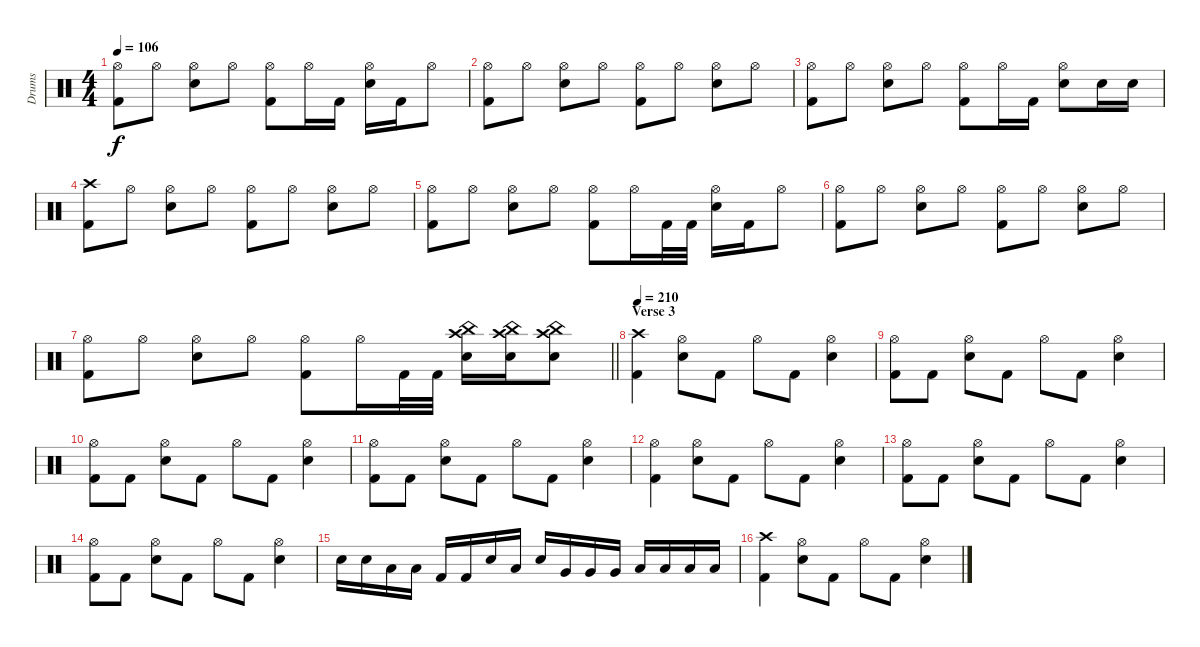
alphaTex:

\track ("Drums" "Drums") {instrument percussion}
\staff {score}
\articulation defaults
\ts (4 4)
\tempo 106
\clef neutral
\ks c
("Hi-Hat (open)" "Kick (hit) 2").8{dy f} "Hi-Hat (open)".8 ("Hi-Hat (open)" "Snare (hit) 2").8 "Hi-Hat (open)".8 ("Hi-Hat (open)" "Kick (hit) 2").8 "Hi-Hat (open)".16 "Kick (hit) 2".16 ("Hi-Hat (open)" "Snare (hit) 2").16 "Kick (hit) 2".16 "Hi-Hat (open)".8 |
("Hi-Hat (open)" "Kick (hit) 2").8 "Hi-Hat (open)".8 ("Hi-Hat (open)" "Snare (hit) 2").8 "Hi-Hat (open)".8 ("Hi-Hat (open)" "Kick (hit) 2").8 "Hi-Hat (open)".8 ("Hi-Hat (open)" "Snare (hit) 2").8 "Hi-Hat (open)".8 |
("Hi-Hat (open)" "Kick (hit) 2").8 "Hi-Hat (open)".8 ("Hi-Hat (open)" "Snare (hit) 2").8 "Hi-Hat (open)".8 ("Hi-Hat (open)" "Kick (hit) 2").8 "Hi-Hat (open)".16 "Kick (hit) 2".16 ("Hi-Hat (open)" "Snare (hit) 2").8 "Snare (hit) 2".16 "Snare (hit) 2".16 |
("Crash high (hit)" "Kick (hit) 2").8 "Hi-Hat (open)".8 ("Hi-Hat (open)" "Snare (hit) 2").8 "Hi-Hat (open)".8 ("Hi-Hat (open)" "Kick (hit) 2").8 "Hi-Hat (open)".8 ("Hi-Hat (open)" "Snare (hit) 2").8 "Hi-Hat (open)".8 |
("Hi-Hat (open)" "Kick (hit) 2").8 "Hi-Hat (open)".8 ("Hi-Hat (open)" "Snare (hit) 2").8 "Hi-Hat (open)".8 ("Hi-Hat (open)" "Kick (hit) 2").8 "Hi-Hat (open)".16 "Kick (hit) 2".32 "Kick (hit) 2".32 ("Hi-Hat (open)" "Snare (hit) 2").16 "Kick (hit) 2".16 "Hi-Hat (open)".8 |
("Hi-Hat (open)" "Kick (hit) 2").8 "Hi-Hat (open)".8 ("Hi-Hat (open)" "Snare (hit) 2").8 "Hi-Hat (open)".8 ("Hi-Hat (open)" "Kick (hit) 2").8 "Hi-Hat (open)".8 ("Hi-Hat (open)" "Snare (hit) 2").8 "Hi-Hat (open)".8 |
\barLineRight lightlight
("Hi-Hat (open)" "Kick (hit) 2").8 "Hi-Hat (open)".8 ("Hi-Hat (open)" "Snare (hit) 2").8 "Hi-Hat (open)".8 ("Hi-Hat (open)" "Kick (hit) 2").8 "Hi-Hat (open)".16 "Kick (hit) 2".32 "Kick (hit) 2".32 ("China (hit)" "Crash high (hit)" "Snare (hit) 2").16 ("China (hit)" "Crash high (hit)" "Snare (hit) 2").16 ("China (hit)" "Crash high (hit)" "Snare (hit) 2").8 |
\section ("" "Verse 3")
\tempo 210
("Crash high (hit)" "Kick (hit) 2").4 ("Hi-Hat (open)" "Snare (hit) 2").8 "Kick (hit) 2".8 "Hi-Hat (open)".8 "Kick (hit) 2".8 ("Hi-Hat (open)" "Snare (hit) 2").4 |
("Hi-Hat (open)" "Kick (hit) 2").8 "Kick (hit) 2".8 ("Hi-Hat (open)" "Snare (hit) 2").8 "Kick (hit) 2".8 "Hi-Hat (open)".8 "Kick (hit) 2".8 ("Hi-Hat (open)" "Snare (hit) 2").4 |
("Hi-Hat (open)" "Kick (hit) 2").8 "Kick (hit) 2".8 ("Hi-Hat (open)" "Snare (hit) 2").8 "Kick (hit) 2".8 "Hi-Hat (open)".8 "Kick (hit) 2".8 ("Hi-Hat (open)" "Snare (hit) 2").4 |
("Hi-Hat (open)" "Kick (hit) 2").8 "Kick (hit) 2".8 ("Hi-Hat (open)" "Snare (hit) 2").8 "Kick (hit) 2".8 "Hi-Hat (open)".8 "Kick (hit) 2".8 ("Hi-Hat (open)" "Snare (hit) 2").4 |
("Hi-Hat (open)" "Kick (hit) 2").4 ("Hi-Hat (open)" "Snare (hit) 2").8 "Kick (hit) 2".8 "Hi-Hat (open)".8 "Kick (hit) 2".8 ("Hi-Hat (open)" "Snare (hit) 2").4 |
("Hi-Hat (open)" "Kick (hit) 2").8 "Kick (hit) 2".8 ("Hi-Hat (open)" "Snare (hit) 2").8 "Kick (hit) 2".8 "Hi-Hat (open)".8 "Kick (hit) 2".8 ("Hi-Hat (open)" "Snare (hit) 2").4 |
("Hi-Hat (open)" "Kick (hit) 2").8 "Kick (hit) 2".8 ("Hi-Hat (open)" "Snare (hit) 2").8 "Kick (hit) 2".8 "Hi-Hat (open)".8 "Kick (hit) 2".8 ("Hi-Hat (open)" "Snare (hit) 2").4 |
"Snare (hit) 2".16 "Snare (hit) 2".16 "Low Tom (hit)".16 "Low Tom (hit)".16 "Kick (hit) 2".16 "Kick (hit) 2".16 "Snare (hit) 2".16 "Low Tom (hit)".16 "Snare (hit) 2".16 "Very Low Tom (hit)".16 "Very Low Tom (hit)".16 "Very Low Tom (hit)".16 "Low Floor Tom (hit)".16 "Low Floor Tom (hit)".16 "Low Floor Tom (hit)".16 "Low Floor Tom (hit)".16 |
("Crash high (hit)" "Kick (hit) 2").4 ("Hi-Hat (open)" "Snare (hit) 2").8 "Kick (hit) 2".8 "Hi-Hat (open)".8 "Kick (hit) 2".8 ("Hi-Hat (open)" "Snare (hit) 2").4
